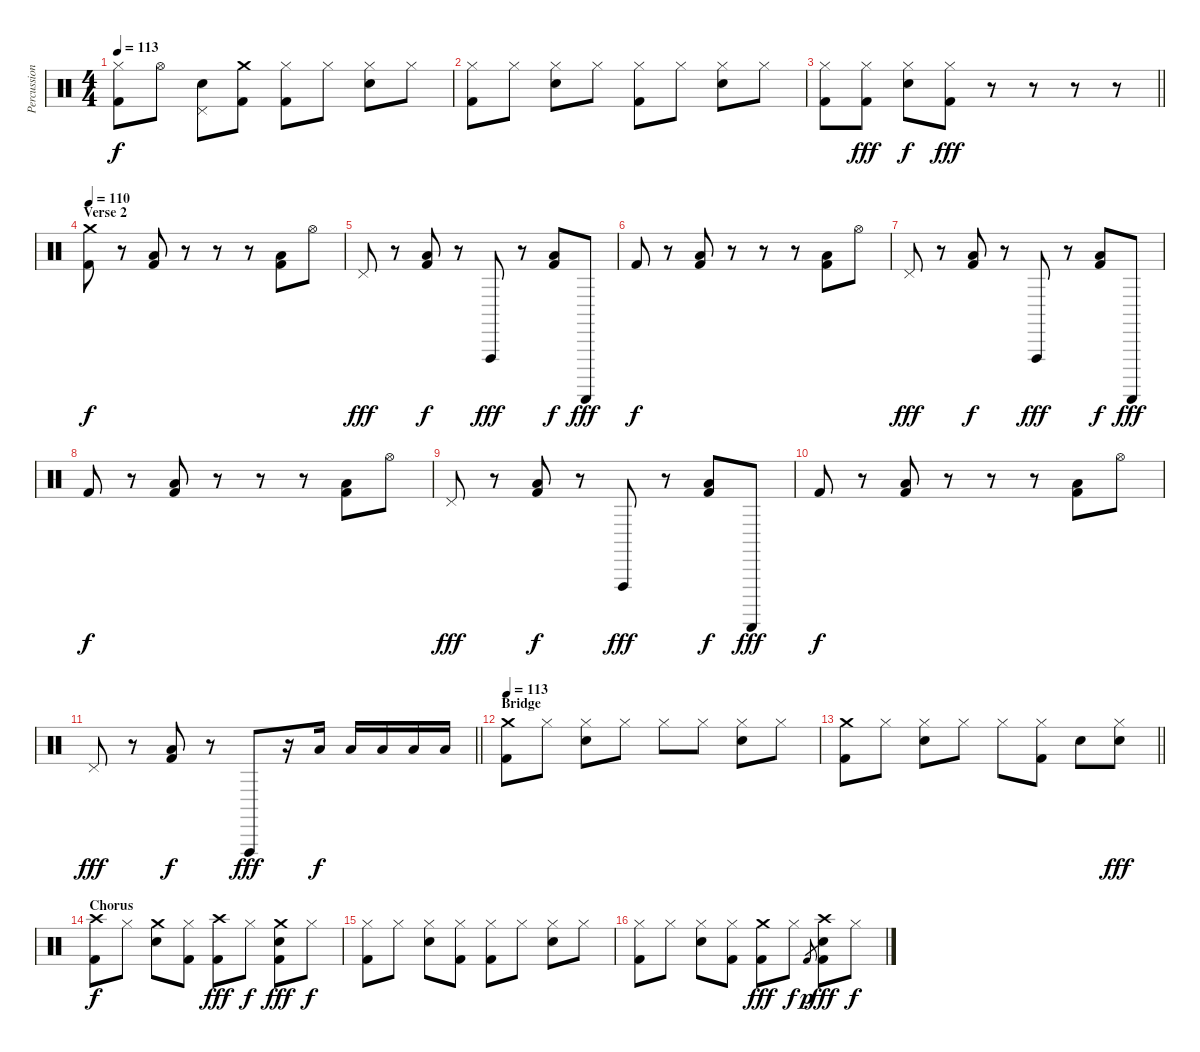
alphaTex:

\track ("Percussion" "Percussion") {instrument percussion}
\staff {score}
\articulation defaults
\ts (4 4)
\tempo 113
\clef neutral
\ks c
("Hi-Hat (closed)" "Kick (hit) 2").8{dy f} "Hi-Hat (open)".8 ("Pedal Hi-Hat (hit)" "Snare (hit) 2").8 ("Crash medium (hit)" "Kick (hit) 2").8 ("Hi-Hat (closed)" "Kick (hit) 2").8 "Hi-Hat (closed)".8 ("Hi-Hat (closed)" "Snare (hit) 2").8 "Hi-Hat (closed)".8 |
("Hi-Hat (closed)" "Kick (hit) 2").8 "Hi-Hat (closed)".8 ("Hi-Hat (closed)" "Snare (hit) 2").8 "Hi-Hat (closed)".8 ("Hi-Hat (closed)" "Kick (hit) 2").8 "Hi-Hat (closed)".8 ("Hi-Hat (closed)" "Snare (hit) 2").8 "Hi-Hat (closed)".8 |
\barLineRight lightlight
("Hi-Hat (closed)" "Kick (hit) 2").8 ("Hi-Hat (closed)" "Kick (hit) 2").8{dy fff} ("Hi-Hat (closed)" "Snare (hit) 2").8{dy f} ("Hi-Hat (closed)" "Kick (hit) 2").8{dy fff} r.8 r.8 r.8 r.8 |
\section ("" "Verse 2")
\tempo 110
("Crash medium (hit)" "Kick (hit) 2").8{dy f} r.8 ("Low Floor Tom (hit)" "Kick (hit) 2").8 r.8 r.8 r.8 ("Low Floor Tom (hit)" "Kick (hit) 2").8 "Hi-Hat (open)".8 |
"Pedal Hi-Hat (hit)".8{dy fff} r.8 ("Low Floor Tom (hit)" "Kick (hit) 2").8{dy f} r.8 "Vibraslap (hit)".8{dy fff} r.8 ("Low Floor Tom (hit)" "Kick (hit) 2").8{dy f} "Guiro (scrap-return)".8{dy fff} |
"Kick (hit) 2".8{dy f} r.8 ("Low Floor Tom (hit)" "Kick (hit) 2").8 r.8 r.8 r.8 ("Low Floor Tom (hit)" "Kick (hit) 2").8 "Hi-Hat (open)".8 |
"Pedal Hi-Hat (hit)".8{dy fff} r.8 ("Low Floor Tom (hit)" "Kick (hit) 2").8{dy f} r.8 "Vibraslap (hit)".8{dy fff} r.8 ("Low Floor Tom (hit)" "Kick (hit) 2").8{dy f} "Guiro (scrap-return)".8{dy fff} |
"Kick (hit) 2".8{dy f} r.8 ("Low Floor Tom (hit)" "Kick (hit) 2").8 r.8 r.8 r.8 ("Low Floor Tom (hit)" "Kick (hit) 2").8 "Hi-Hat (open)".8 |
"Pedal Hi-Hat (hit)".8{dy fff} r.8 ("Low Floor Tom (hit)" "Kick (hit) 2").8{dy f} r.8 "Vibraslap (hit)".8{dy fff} r.8 ("Low Floor Tom (hit)" "Kick (hit) 2").8{dy f} "Guiro (scrap-return)".8{dy fff} |
"Kick (hit) 2".8{dy f} r.8 ("Low Floor Tom (hit)" "Kick (hit) 2").8 r.8 r.8 r.8 ("Low Floor Tom (hit)" "Kick (hit) 2").8 "Hi-Hat (open)".8 |
\barLineRight lightlight "Pedal Hi-Hat (hit)".8{dy fff}
r.8 ("Low Floor Tom (hit)" "Kick (hit) 2").8{dy f} r.8 "Vibraslap (hit)".8{dy fff} r.16 "Low Floor Tom (hit)".16{dy f} "Low Floor Tom (hit)".16 "Low Floor Tom (hit)".16 "Low Floor Tom (hit)".16 "Low Floor Tom (hit)".16 |
\section ("" "Bridge")
\tempo 113
("Crash medium (hit)" "Kick (hit) 2").8 "Hi-Hat (closed)".8 ("Hi-Hat (closed)" "Snare (hit) 2").8 "Hi-Hat (closed)".8 "Hi-Hat (closed)".8 "Hi-Hat (closed)".8 ("Hi-Hat (closed)" "Snare (hit) 2").8 "Hi-Hat (closed)".8 |
\barLineRight lightlight
("Crash medium (hit)" "Kick (hit) 2").8 "Hi-Hat (closed)".8 ("Hi-Hat (closed)" "Snare (hit) 2").8 "Hi-Hat (closed)".8 "Hi-Hat (closed)".8 ("Hi-Hat (closed)" "Kick (hit) 2").8 "Snare (hit) 2".8 ("Hi-Hat (closed)" "Snare (hit) 2").8{dy fff} |
\section ("" "Chorus")
("Crash high (hit)" "Kick (hit) 2").8{dy f} "Hi-Hat (closed)".8 ("Crash medium (hit)" "Snare (hit) 2").8 ("Hi-Hat (closed)" "Kick (hit) 2").8 ("Crash high (hit)" "Kick (hit) 2").8{dy fff} "Hi-Hat (closed)".8{dy f} ("Crash medium (hit)" "Snare (hit) 2" "Kick (hit) 2").8{dy fff} "Hi-Hat (closed)".8{dy f} |
("Hi-Hat (closed)" "Kick (hit) 2").8 "Hi-Hat (closed)".8 ("Hi-Hat (closed)" "Snare (hit) 2").8 ("Hi-Hat (closed)" "Kick (hit) 2").8 ("Hi-Hat (closed)" "Kick (hit) 2").8 "Hi-Hat (closed)".8 ("Hi-Hat (closed)" "Snare (hit) 2").8 "Hi-Hat (closed)".8 |
("Hi-Hat (closed)" "Kick (hit) 2").8 "Hi-Hat (closed)".8 ("Hi-Hat (closed)" "Snare (hit) 2").8 ("Hi-Hat (closed)" "Kick (hit) 2").8 ("Crash medium (hit)" "Kick (hit) 2").8{dy fff} "Hi-Hat (closed)".8{dy f} "Kick (hit) 2".8{gr dy p} ("Crash high (hit)" "Snare (hit) 2" "Kick (hit) 2").8{dy fff} "Hi-Hat (closed)".8{dy f}
